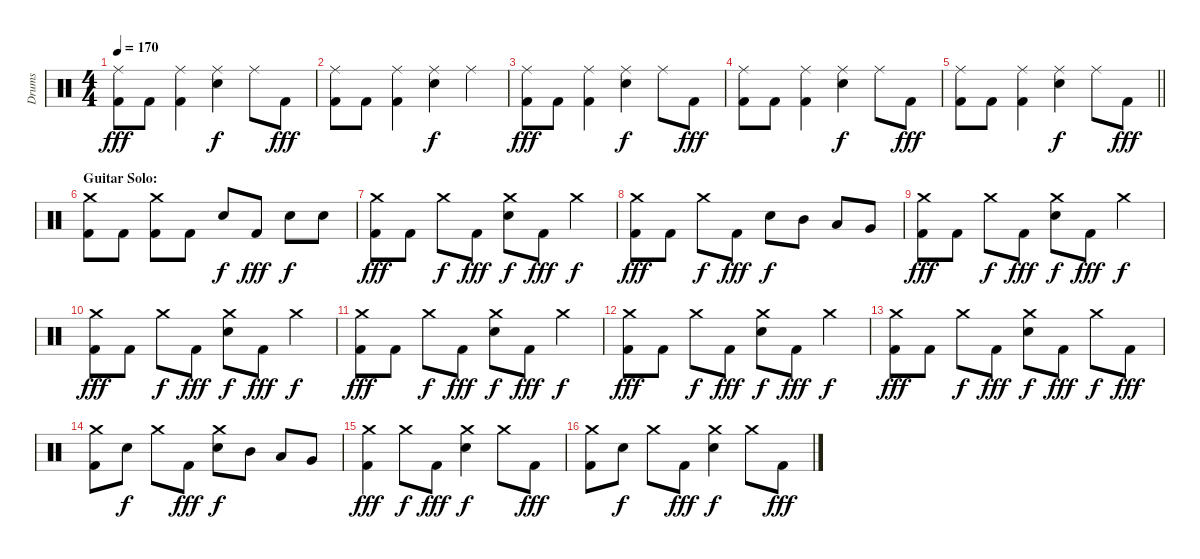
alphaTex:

\track ("Drums" "Drums") {instrument percussion}
\staff {score}
\articulation defaults
\ts (4 4)
\tempo 170
\clef neutral
\ks c
("Ride (middle)" "Kick (hit) 2").8{dy fff} "Kick (hit) 2".8 ("Ride (middle)" "Kick (hit) 2").4 ("Ride (middle)" "Electric Snare (hit)").4{dy f} "Ride (middle)".8 "Kick (hit) 2".8{dy fff} |
("Ride (middle)" "Kick (hit) 2").8 "Kick (hit) 2".8 ("Ride (middle)" "Kick (hit) 2").4 ("Ride (middle)" "Electric Snare (hit)").4{dy f} "Ride (middle)".4 |
("Ride (middle)" "Kick (hit) 2").8{dy fff} "Kick (hit) 2".8 ("Ride (middle)" "Kick (hit) 2").4 ("Ride (middle)" "Electric Snare (hit)").4{dy f} "Ride (middle)".8 "Kick (hit) 2".8{dy fff} |
("Ride (middle)" "Kick (hit) 2").8 "Kick (hit) 2".8 ("Ride (middle)" "Kick (hit) 2").4 ("Ride (middle)" "Electric Snare (hit)").4{dy f} "Ride (middle)".8 "Kick (hit) 2".8{dy fff} |
\barLineRight lightlight
("Ride (middle)" "Kick (hit) 2").8 "Kick (hit) 2".8 ("Ride (middle)" "Kick (hit) 2").4 ("Ride (middle)" "Electric Snare (hit)").4{dy f} "Ride (middle)".8 "Kick (hit) 2".8{dy fff} |
\section ("" "Guitar Solo:")
("Crash medium (hit)" "Kick (hit) 2").8 "Kick (hit) 2".8 ("Crash medium (hit)" "Kick (hit) 2").8 "Kick (hit) 2".8 "Electric Snare (hit)".8{dy f} "Kick (hit) 2".8{dy fff} "Electric Snare (hit)".8{dy f} "Electric Snare (hit)".8 |
("Crash medium (hit)" "Kick (hit) 2").8{dy fff} "Kick (hit) 2".8 "Crash medium (hit)".8{dy f} "Kick (hit) 2".8{dy fff} ("Crash medium (hit)" "Electric Snare (hit)").8{dy f} "Kick (hit) 2".8{dy fff} "Crash medium (hit)".4{dy f} |
("Crash medium (hit)" "Kick (hit) 2").8{dy fff} "Kick (hit) 2".8 "Crash medium (hit)".8{dy f} "Kick (hit) 2".8{dy fff} "Electric Snare (hit)".8{dy f} "Mid Tom (hit)".8 "Low Tom (hit)".8 "Very Low Tom (hit)".8 |
("Crash medium (hit)" "Kick (hit) 2").8{dy fff} "Kick (hit) 2".8 "Crash medium (hit)".8{dy f} "Kick (hit) 2".8{dy fff} ("Crash medium (hit)" "Electric Snare (hit)").8{dy f} "Kick (hit) 2".8{dy fff} "Crash medium (hit)".4{dy f} |
("Crash medium (hit)" "Kick (hit) 2").8{dy fff} "Kick (hit) 2".8 "Crash medium (hit)".8{dy f} "Kick (hit) 2".8{dy fff} ("Crash medium (hit)" "Electric Snare (hit)").8{dy f} "Kick (hit) 2".8{dy fff} "Crash medium (hit)".4{dy f} |
("Crash medium (hit)" "Kick (hit) 2").8{dy fff} "Kick (hit) 2".8 "Crash medium (hit)".8{dy f} "Kick (hit) 2".8{dy fff} ("Crash medium (hit)" "Electric Snare (hit)").8{dy f} "Kick (hit) 2".8{dy fff} "Crash medium (hit)".4{dy f} |
("Crash medium (hit)" "Kick (hit) 2").8{dy fff} "Kick (hit) 2".8 "Crash medium (hit)".8{dy f} "Kick (hit) 2".8{dy fff} ("Crash medium (hit)" "Electric Snare (hit)").8{dy f} "Kick (hit) 2".8{dy fff} "Crash medium (hit)".4{dy f} |
("Crash medium (hit)" "Kick (hit) 2").8{dy fff} "Kick (hit) 2".8 "Crash medium (hit)".8{dy f} "Kick (hit) 2".8{dy fff} ("Crash medium (hit)" "Electric Snare (hit)").8{dy f} "Kick (hit) 2".8{dy fff} "Crash medium (hit)".8{dy f} "Kick (hit) 2".8{dy fff} |
("Crash medium (hit)" "Kick (hit) 2").8 "Electric Snare (hit)".8{dy f} "Crash medium (hit)".8 "Kick (hit) 2".8{dy fff} ("Crash medium (hit)" "Electric Snare (hit)").8{dy f} "Mid Tom (hit)".8 "Low Tom (hit)".8 "Very Low Tom (hit)".8 |
("Crash medium (hit)" "Kick (hit) 2").4{dy fff} "Crash medium (hit)".8{dy f} "Kick (hit) 2".8{dy fff} ("Crash medium (hit)" "Electric Snare (hit)").4{dy f} "Crash medium (hit)".8 "Kick (hit) 2".8{dy fff} |
("Crash medium (hit)" "Kick (hit) 2").8 "Electric Snare (hit)".8{dy f} "Crash medium (hit)".8 "Kick (hit) 2".8{dy fff} ("Crash medium (hit)" "Electric Snare (hit)").4{dy f} "Crash medium (hit)".8 "Kick (hit) 2".8{dy fff}
